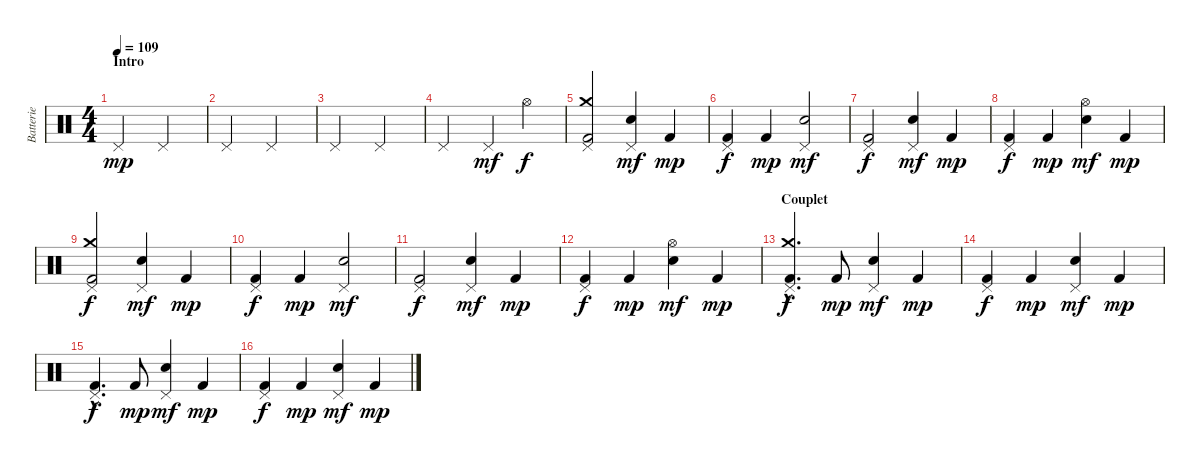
\track ("Batterie" "Batterie") {instrument percussion}
\staff {score}
\articulation defaults
\ts (4 4)
\section ("" "Intro")
\tempo 109
\clef neutral
\ks c "Pedal Hi-Hat (hit)".2{dy mp} "Pedal Hi-Hat (hit)".2
|
"Pedal Hi-Hat (hit)".2 "Pedal Hi-Hat (hit)".2 |
"Pedal Hi-Hat (hit)".2 "Pedal Hi-Hat (hit)".2 |
"Pedal Hi-Hat (hit)".2 "Pedal Hi-Hat (hit)".4{dy mf} "Hi-Hat (open)".4{dy f} |
("Pedal Hi-Hat (hit)" "Crash medium (hit)" "Kick (hit) 2").2 ("Pedal Hi-Hat (hit)" "Electric Snare (hit)").4{dy mf} "Kick (hit) 2".4{dy mp} |
("Pedal Hi-Hat (hit)" "Kick (hit) 2").4{dy f} "Kick (hit) 2".4{dy mp} ("Pedal Hi-Hat (hit)" "Electric Snare (hit)").2{dy mf} |
("Pedal Hi-Hat (hit)" "Kick (hit) 2").2{dy f} ("Pedal Hi-Hat (hit)" "Electric Snare (hit)").4{dy mf} "Kick (hit) 2".4{dy mp} |
("Pedal Hi-Hat (hit)" "Kick (hit) 2").4{dy f} "Kick (hit) 2".4{dy mp} ("Hi-Hat (open)" "Electric Snare (hit)").4{dy mf} "Kick (hit) 2".4{dy mp} |
("Pedal Hi-Hat (hit)" "Crash medium (hit)" "Kick (hit) 2").2{dy f} ("Pedal Hi-Hat (hit)" "Electric Snare (hit)").4{dy mf} "Kick (hit) 2".4{dy mp} |
("Pedal Hi-Hat (hit)" "Kick (hit) 2").4{dy f} "Kick (hit) 2".4{dy mp} ("Pedal Hi-Hat (hit)" "Electric Snare (hit)").2{dy mf} |
("Pedal Hi-Hat (hit)" "Kick (hit) 2").2{dy f} ("Pedal Hi-Hat (hit)" "Electric Snare (hit)").4{dy mf} "Kick (hit) 2".4{dy mp} |
("Pedal Hi-Hat (hit)" "Kick (hit) 2").4{dy f} "Kick (hit) 2".4{dy mp} ("Hi-Hat (open)" "Electric Snare (hit)").4{dy mf} "Kick (hit) 2".4{dy mp} |
\section ("" "Couplet")
("Pedal Hi-Hat (hit)"{hac} "Crash medium (hit)"{hac} "Kick (hit) 2"{hac}).4{d dy f} "Kick (hit) 2".8{dy mp} ("Pedal Hi-Hat (hit)" "Electric Snare (hit)").4{dy mf} "Kick (hit) 2".4{dy mp} |
("Pedal Hi-Hat (hit)" "Kick (hit) 2").4{dy f} "Kick (hit) 2".4{dy mp} ("Pedal Hi-Hat (hit)" "Electric Snare (hit)").4{dy mf} "Kick (hit) 2".4{dy mp} |
("Pedal Hi-Hat (hit)"{hac} "Kick (hit) 2"{hac}).4{d dy f} "Kick (hit) 2".8{dy mp} ("Pedal Hi-Hat (hit)" "Electric Snare (hit)").4{dy mf} "Kick (hit) 2".4{dy mp} |
("Pedal Hi-Hat (hit)" "Kick (hit) 2").4{dy f} "Kick (hit) 2".4{dy mp} ("Pedal Hi-Hat (hit)" "Electric Snare (hit)").4{dy mf} "Kick (hit) 2".4{dy mp}
